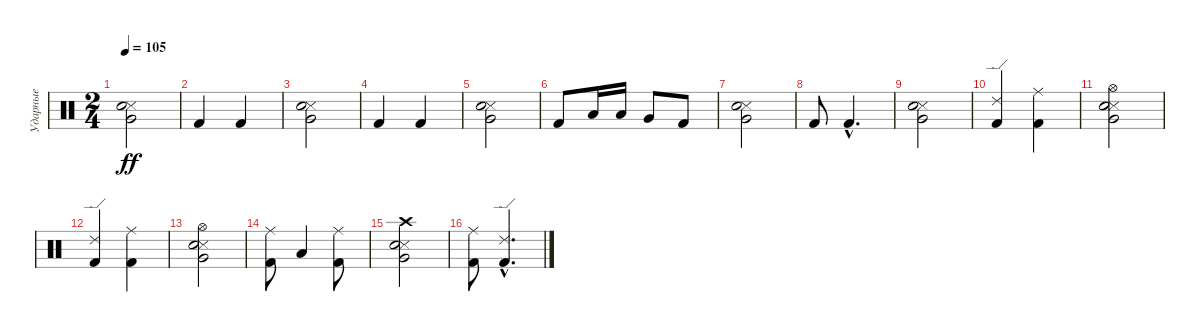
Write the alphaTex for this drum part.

\track ("Ударные" "Ударные") {instrument percussion}
\staff {score}
\articulation defaults
\ts (2 4)
\tempo 105
\clef neutral
\ks c
("Metronome (hit)" "Very Low Tom (hit)" "Snare (hit) 2").2{dy ff} |
"Kick (hit) 2".4 "Kick (hit) 2".4 |
("Metronome (hit)" "Very Low Tom (hit)" "Snare (hit) 2").2 |
"Kick (hit) 2".4 "Kick (hit) 2".4 |
("Metronome (hit)" "Very Low Tom (hit)" "Snare (hit) 2").2 |
"Kick (hit) 2".8 "Low Tom (hit)".16 "Low Tom (hit)".16 "Very Low Tom (hit)".8 "Kick (hit) 2".8 |
("Metronome (hit)" "Very Low Tom (hit)" "Snare (hit) 2").2 |
"Kick (hit) 2".8 "Kick (hit) 2"{hac}.4{d} |
("Metronome (hit)" "Very Low Tom (hit)" "Snare (hit) 2").2 |
("Ride (edge) 2" "Kick (hit) 2").4 ("Ride (middle)" "Kick (hit) 2").4 |
("Hi-Hat (open)" "Metronome (hit)" "Very Low Tom (hit)" "Snare (hit) 2").2 |
("Ride (edge) 2" "Kick (hit) 2").4 ("Ride (middle)" "Kick (hit) 2").4 |
("Hi-Hat (open)" "Metronome (hit)" "Very Low Tom (hit)" "Snare (hit) 2").2 |
("Ride (middle)" "Kick (hit) 2").8 "Low Tom (hit)".4 ("Ride (middle)" "Kick (hit) 2").8 |
("Crash high (hit)" "Metronome (hit)" "Very Low Tom (hit)" "Snare (hit) 2").2 |
("Ride (middle)" "Kick (hit) 2").8 ("Ride (edge) 2"{hac} "Kick (hit) 2"{hac}).4{d}
